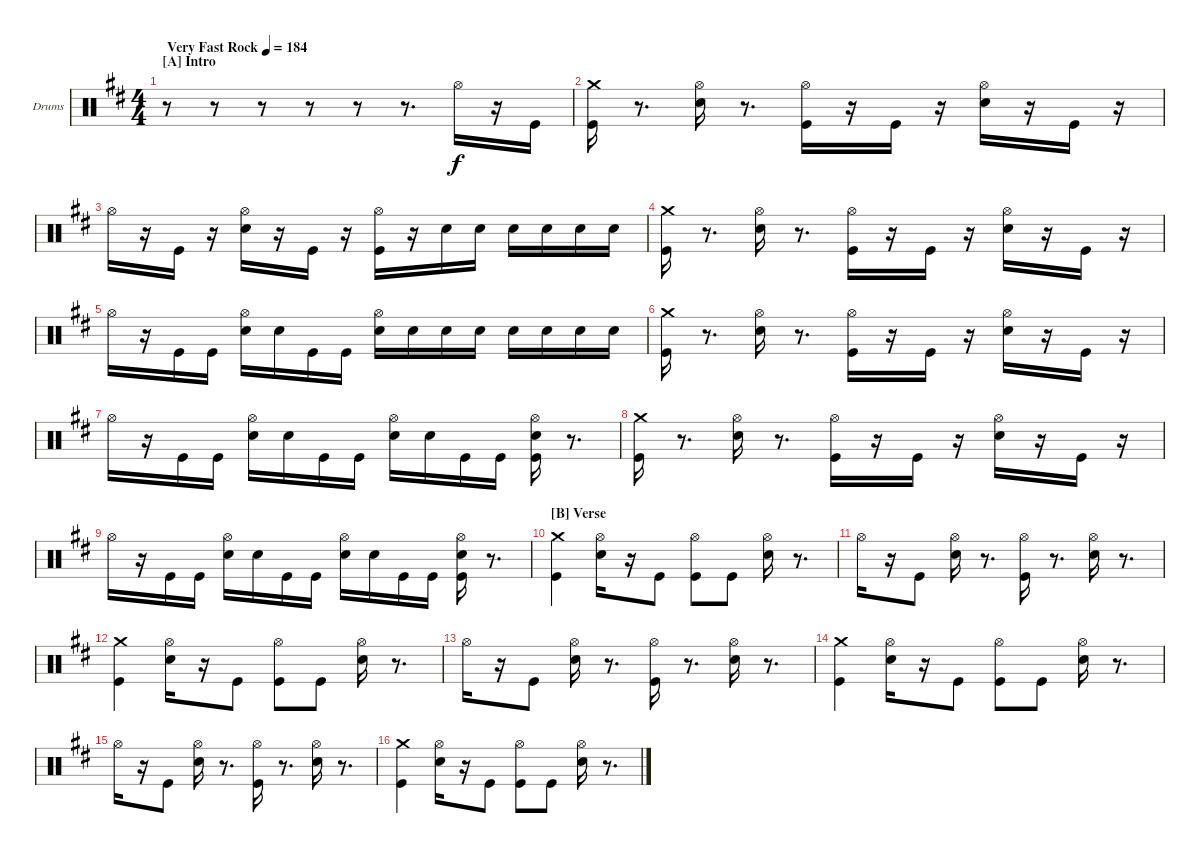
\defaultSystemsLayout 4
\bracketExtendMode groupsimilarinstruments
\firstSystemTrackNameOrientation horizontal
\otherSystemsTrackNameOrientation horizontal
\track ("Drumkit" "Drums") {instrument percussion}
\staff {score}
\articulation defaults
\ts (4 4)
\section ("A" "Intro")
\tempo (184 "Very Fast Rock")
\clef neutral
\ks d
r.8{dy f} r.8 r.8 r.8 r.8 r.8{d} "Hi-Hat (open)".16 r.16 "Kick (hit)".16 |
("Crash medium (hit)" "Kick (hit)").16 r.8{d} ("Hi-Hat (open)" "Snare (hit) 2").16 r.8{d} ("Hi-Hat (open)" "Kick (hit)").16 r.16 "Kick (hit)".16 r.16 ("Snare (hit) 2" "Hi-Hat (open)").16 r.16 "Kick (hit)".16 r.16 |
"Hi-Hat (open)".16 r.16 "Kick (hit)".16 r.16 ("Hi-Hat (open)" "Snare (hit) 2").16 r.16 "Kick (hit)".16 r.16 ("Kick (hit)" "Hi-Hat (open)").16 r.16 "Snare (hit) 2".16 "Snare (hit) 2".16 "Snare (hit) 2".16 "Snare (hit) 2".16 "Snare (hit) 2".16 "Snare (hit) 2".16 |
("Crash medium (hit)" "Kick (hit)").16 r.8{d} ("Hi-Hat (open)" "Snare (hit) 2").16 r.8{d} ("Hi-Hat (open)" "Kick (hit)").16 r.16 "Kick (hit)".16 r.16 ("Snare (hit) 2" "Hi-Hat (open)").16 r.16 "Kick (hit)".16 r.16 |
"Hi-Hat (open)".16 r.16 "Kick (hit)".16 "Kick (hit)".16 ("Hi-Hat (open)" "Snare (hit) 2").16 "Snare (hit) 2".16 "Kick (hit)".16 "Kick (hit)".16 ("Hi-Hat (open)" "Snare (hit) 2").16 "Snare (hit) 2".16 "Snare (hit) 2".16 "Snare (hit) 2".16 "Snare (hit) 2".16 "Snare (hit) 2".16 "Snare (hit) 2".16 "Snare (hit) 2".16 |
("Crash medium (hit)" "Kick (hit)").16 r.8{d} ("Hi-Hat (open)" "Snare (hit) 2").16 r.8{d} ("Hi-Hat (open)" "Kick (hit)").16 r.16 "Kick (hit)".16 r.16 ("Snare (hit) 2" "Hi-Hat (open)").16 r.16 "Kick (hit)".16 r.16 |
"Hi-Hat (open)".16 r.16 "Kick (hit)".16 "Kick (hit)".16 ("Hi-Hat (open)" "Snare (hit) 2").16 "Snare (hit) 2".16 "Kick (hit)".16 "Kick (hit)".16 ("Hi-Hat (open)" "Snare (hit) 2").16 "Snare (hit) 2".16 "Kick (hit)".16 "Kick (hit)".16 ("Hi-Hat (open)" "Snare (hit) 2" "Kick (hit)").16 r.8{d} |
("Crash medium (hit)" "Kick (hit)").16 r.8{d} ("Hi-Hat (open)" "Snare (hit) 2").16 r.8{d} ("Hi-Hat (open)" "Kick (hit)").16 r.16 "Kick (hit)".16 r.16 ("Snare (hit) 2" "Hi-Hat (open)").16 r.16 "Kick (hit)".16 r.16 |
"Hi-Hat (open)".16 r.16 "Kick (hit)".16 "Kick (hit)".16 ("Hi-Hat (open)" "Snare (hit) 2").16 "Snare (hit) 2".16 "Kick (hit)".16 "Kick (hit)".16 ("Hi-Hat (open)" "Snare (hit) 2").16 "Snare (hit) 2".16 "Kick (hit)".16 "Kick (hit)".16 ("Hi-Hat (open)" "Snare (hit) 2" "Kick (hit)").16 r.8{d} |
\section ("B" "Verse")
("Crash medium (hit)" "Kick (hit)").4 ("Hi-Hat (open)" "Snare (hit) 2").16 r.16 "Kick (hit)".8 ("Hi-Hat (open)" "Kick (hit)").8 "Kick (hit)".8 ("Hi-Hat (open)" "Snare (hit) 2").16 r.8{d} |
"Hi-Hat (open)".16 r.16 "Kick (hit)".8 ("Hi-Hat (open)" "Snare (hit) 2").16 r.8{d} ("Hi-Hat (open)" "Kick (hit)").16 r.8{d} ("Hi-Hat (open)" "Snare (hit) 2").16 r.8{d} |
("Crash medium (hit)" "Kick (hit)").4 ("Hi-Hat (open)" "Snare (hit) 2").16 r.16 "Kick (hit)".8 ("Hi-Hat (open)" "Kick (hit)").8 "Kick (hit)".8 ("Hi-Hat (open)" "Snare (hit) 2").16 r.8{d} |
"Hi-Hat (open)".16 r.16 "Kick (hit)".8 ("Hi-Hat (open)" "Snare (hit) 2").16 r.8{d} ("Hi-Hat (open)" "Kick (hit)").16 r.8{d} ("Hi-Hat (open)" "Snare (hit) 2").16 r.8{d} |
("Crash medium (hit)" "Kick (hit)").4 ("Hi-Hat (open)" "Snare (hit) 2").16 r.16 "Kick (hit)".8 ("Hi-Hat (open)" "Kick (hit)").8 "Kick (hit)".8 ("Hi-Hat (open)" "Snare (hit) 2").16 r.8{d} |
"Hi-Hat (open)".16 r.16 "Kick (hit)".8 ("Hi-Hat (open)" "Snare (hit) 2").16 r.8{d} ("Hi-Hat (open)" "Kick (hit)").16 r.8{d} ("Hi-Hat (open)" "Snare (hit) 2").16 r.8{d} |
("Crash medium (hit)" "Kick (hit)").4 ("Hi-Hat (open)" "Snare (hit) 2").16 r.16 "Kick (hit)".8 ("Hi-Hat (open)" "Kick (hit)").8 "Kick (hit)".8 ("Hi-Hat (open)" "Snare (hit) 2").16 r.8{d}
